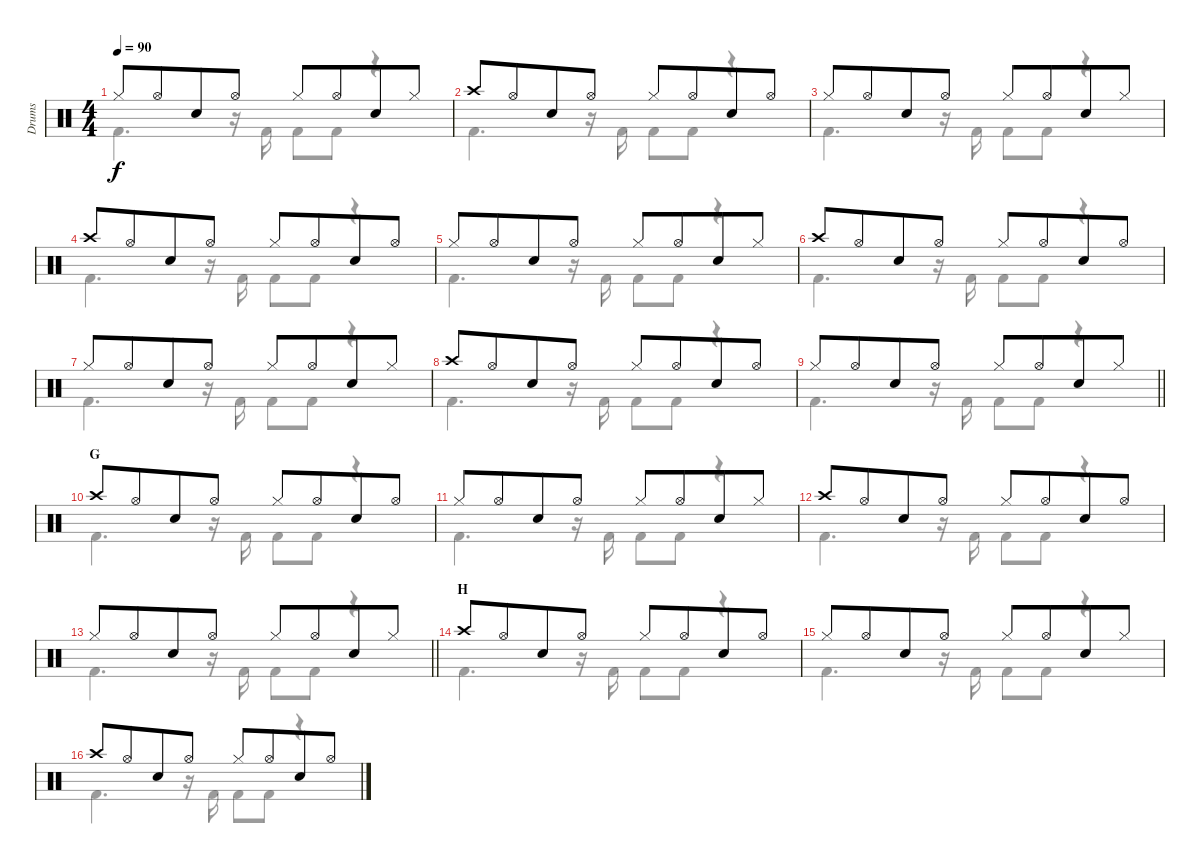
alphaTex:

\track ("Drums" "Drums") {instrument percussion}
\staff {score}
\articulation defaults
\voice
\ts (4 4)
\tempo 90
\clef neutral
\ks c "Hi-Hat (closed)".8{dy f} "Hi-Hat (open)".8{beam merge} "Snare (hit) 2".8 "Hi-Hat (open)".8 "Hi-Hat (closed)".8 "Hi-Hat (open)".8{beam merge} "Snare (hit) 2".8 "Hi-Hat (closed)".8
|
"Crash high (hit)".8 "Hi-Hat (open)".8{beam merge} "Snare (hit) 2".8 "Hi-Hat (open)".8 "Hi-Hat (closed)".8 "Hi-Hat (open)".8{beam merge} "Snare (hit) 2".8 "Hi-Hat (open)".8 |
"Hi-Hat (closed)".8 "Hi-Hat (open)".8{beam merge} "Snare (hit) 2".8 "Hi-Hat (open)".8 "Hi-Hat (closed)".8 "Hi-Hat (open)".8{beam merge} "Snare (hit) 2".8 "Hi-Hat (closed)".8 |
"Crash high (hit)".8 "Hi-Hat (open)".8{beam merge} "Snare (hit) 2".8 "Hi-Hat (open)".8 "Hi-Hat (closed)".8 "Hi-Hat (open)".8{beam merge} "Snare (hit) 2".8 "Hi-Hat (open)".8 |
"Hi-Hat (closed)".8 "Hi-Hat (open)".8{beam merge} "Snare (hit) 2".8 "Hi-Hat (open)".8 "Hi-Hat (closed)".8 "Hi-Hat (open)".8{beam merge} "Snare (hit) 2".8 "Hi-Hat (closed)".8 |
"Crash high (hit)".8 "Hi-Hat (open)".8{beam merge} "Snare (hit) 2".8 "Hi-Hat (open)".8 "Hi-Hat (closed)".8 "Hi-Hat (open)".8{beam merge} "Snare (hit) 2".8 "Hi-Hat (open)".8 |
"Hi-Hat (closed)".8 "Hi-Hat (open)".8{beam merge} "Snare (hit) 2".8 "Hi-Hat (open)".8 "Hi-Hat (closed)".8 "Hi-Hat (open)".8{beam merge} "Snare (hit) 2".8 "Hi-Hat (closed)".8 |
"Crash high (hit)".8 "Hi-Hat (open)".8{beam merge} "Snare (hit) 2".8 "Hi-Hat (open)".8 "Hi-Hat (closed)".8 "Hi-Hat (open)".8{beam merge} "Snare (hit) 2".8 "Hi-Hat (open)".8 |
\barLineRight lightlight "Hi-Hat (closed)".8 "Hi-Hat (open)".8{beam merge} "Snare (hit) 2".8 "Hi-Hat (open)".8 "Hi-Hat (closed)".8 "Hi-Hat (open)".8{beam merge} "Snare (hit) 2".8 "Hi-Hat (closed)".8
|
\section ("" "G")
"Crash high (hit)".8 "Hi-Hat (open)".8{beam merge} "Snare (hit) 2".8 "Hi-Hat (open)".8 "Hi-Hat (closed)".8 "Hi-Hat (open)".8{beam merge} "Snare (hit) 2".8 "Hi-Hat (open)".8 |
"Hi-Hat (closed)".8 "Hi-Hat (open)".8{beam merge} "Snare (hit) 2".8 "Hi-Hat (open)".8 "Hi-Hat (closed)".8 "Hi-Hat (open)".8{beam merge} "Snare (hit) 2".8 "Hi-Hat (closed)".8 |
"Crash high (hit)".8 "Hi-Hat (open)".8{beam merge} "Snare (hit) 2".8 "Hi-Hat (open)".8 "Hi-Hat (closed)".8 "Hi-Hat (open)".8{beam merge} "Snare (hit) 2".8 "Hi-Hat (open)".8 |
\barLineRight lightlight "Hi-Hat (closed)".8 "Hi-Hat (open)".8{beam merge} "Snare (hit) 2".8 "Hi-Hat (open)".8 "Hi-Hat (closed)".8 "Hi-Hat (open)".8{beam merge} "Snare (hit) 2".8 "Hi-Hat (closed)".8
|
\section ("" "H")
"Crash high (hit)".8 "Hi-Hat (open)".8{beam merge} "Snare (hit) 2".8 "Hi-Hat (open)".8 "Hi-Hat (closed)".8 "Hi-Hat (open)".8{beam merge} "Snare (hit) 2".8 "Hi-Hat (open)".8 |
"Hi-Hat (closed)".8 "Hi-Hat (open)".8{beam merge} "Snare (hit) 2".8 "Hi-Hat (open)".8 "Hi-Hat (closed)".8 "Hi-Hat (open)".8{beam merge} "Snare (hit) 2".8 "Hi-Hat (closed)".8 |
"Crash high (hit)".8 "Hi-Hat (open)".8{beam merge} "Snare (hit) 2".8 "Hi-Hat (open)".8 "Hi-Hat (closed)".8 "Hi-Hat (open)".8{beam merge} "Snare (hit) 2".8 "Hi-Hat (open)".8
\voice
\clef neutral
\ottava regular
\simile none
\ks c "Kick (hit) 2".4{d dy f}
r.16 "Kick (hit) 2".16 "Kick (hit) 2".8 "Kick (hit) 2".8 r.4 |
"Kick (hit) 2".4{d} r.16 "Kick (hit) 2".16 "Kick (hit) 2".8 "Kick (hit) 2".8 r.4 |
"Kick (hit) 2".4{d} r.16 "Kick (hit) 2".16 "Kick (hit) 2".8 "Kick (hit) 2".8 r.4 |
"Kick (hit) 2".4{d} r.16 "Kick (hit) 2".16 "Kick (hit) 2".8 "Kick (hit) 2".8 r.4 |
"Kick (hit) 2".4{d} r.16 "Kick (hit) 2".16 "Kick (hit) 2".8 "Kick (hit) 2".8 r.4 |
"Kick (hit) 2".4{d} r.16 "Kick (hit) 2".16 "Kick (hit) 2".8 "Kick (hit) 2".8 r.4 |
"Kick (hit) 2".4{d} r.16 "Kick (hit) 2".16 "Kick (hit) 2".8 "Kick (hit) 2".8 r.4 |
"Kick (hit) 2".4{d} r.16 "Kick (hit) 2".16 "Kick (hit) 2".8 "Kick (hit) 2".8 r.4 |
\barLineRight lightlight "Kick (hit) 2".4{d}
r.16 "Kick (hit) 2".16 "Kick (hit) 2".8 "Kick (hit) 2".8 r.4 |
"Kick (hit) 2".4{d} r.16 "Kick (hit) 2".16 "Kick (hit) 2".8 "Kick (hit) 2".8 r.4 |
"Kick (hit) 2".4{d} r.16 "Kick (hit) 2".16 "Kick (hit) 2".8 "Kick (hit) 2".8 r.4 |
"Kick (hit) 2".4{d} r.16 "Kick (hit) 2".16 "Kick (hit) 2".8 "Kick (hit) 2".8 r.4 |
\barLineRight lightlight "Kick (hit) 2".4{d}
r.16 "Kick (hit) 2".16 "Kick (hit) 2".8 "Kick (hit) 2".8 r.4 |
"Kick (hit) 2".4{d} r.16 "Kick (hit) 2".16 "Kick (hit) 2".8 "Kick (hit) 2".8 r.4 |
"Kick (hit) 2".4{d} r.16 "Kick (hit) 2".16 "Kick (hit) 2".8 "Kick (hit) 2".8 r.4 |
"Kick (hit) 2".4{d} r.16 "Kick (hit) 2".16 "Kick (hit) 2".8 "Kick (hit) 2".8 r.4
